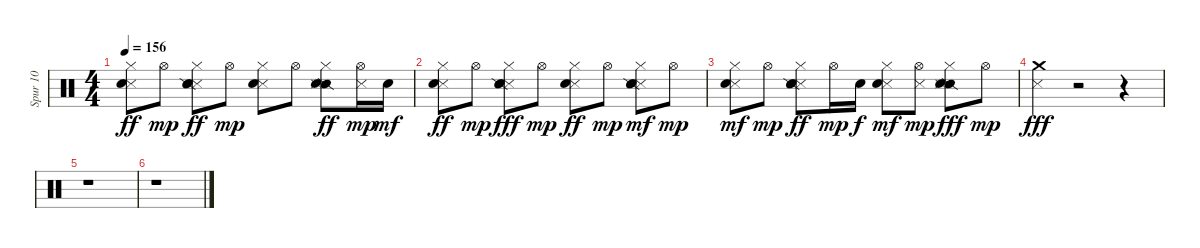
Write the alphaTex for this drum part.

\track ("Spur 10" "Spur 10") {instrument percussion}
\staff {score}
\articulation defaults
\ts (4 4)
\tempo 156
\clef neutral
\ks c
("Metronome (hit)" "Hi-Hat (closed)" "Snare (hit) 2").8{dy ff} "Hi-Hat (open)".8{dy mp} ("Metronome (hit)" "Snare (side stick) 2" "Hi-Hat (closed)" "Snare (hit) 2").8{dy ff} "Hi-Hat (open)".8{dy mp} ("Metronome (hit)" "Hi-Hat (closed)" "Snare (hit) 2").8 "Hi-Hat (open)".8 ("Snare (side stick) 2" "Metronome (hit)" "Hi-Hat (closed)" "Snare (hit) 2").8{dy ff} ("Metronome (hit)" "Hi-Hat (open)").16{dy mp} "Electric Snare (hit)".16{dy mf} |
("Metronome (hit)" "Hi-Hat (closed)" "Snare (hit) 2").8{dy ff} "Hi-Hat (open)".8{dy mp} ("Metronome (hit)" "Snare (side stick) 2" "Hi-Hat (closed)" "Snare (hit) 2").8{dy fff} "Hi-Hat (open)".8{dy mp} ("Metronome (hit)" "Hi-Hat (closed)" "Snare (hit) 2").8{dy ff} "Hi-Hat (open)".8{dy mp} ("Metronome (hit)" "Snare (side stick) 2" "Hi-Hat (closed)" "Snare (hit) 2").8{dy mf} "Hi-Hat (open)".8{dy mp} |
("Metronome (hit)" "Hi-Hat (closed)" "Snare (hit) 2").8{dy mf} "Hi-Hat (open)".8{dy mp} ("Metronome (hit)" "Snare (side stick) 2" "Hi-Hat (closed)" "Snare (hit) 2").8{dy ff} "Hi-Hat (open)".16{dy mp} "Electric Snare (hit)".16{dy f} ("Metronome (hit)" "Hi-Hat (closed)" "Snare (hit) 2").8{dy mf} ("Metronome (hit)" "Hi-Hat (open)").8{dy mp} ("Snare (side stick) 2" "Metronome (hit)" "Hi-Hat (closed)" "Snare (hit) 2").8{dy fff} "Hi-Hat (open)".8{dy mp} |
("Metronome (hit)" "Crash medium (hit)").4{dy fff} r.2 r.4 |
r.1 |
r.1
